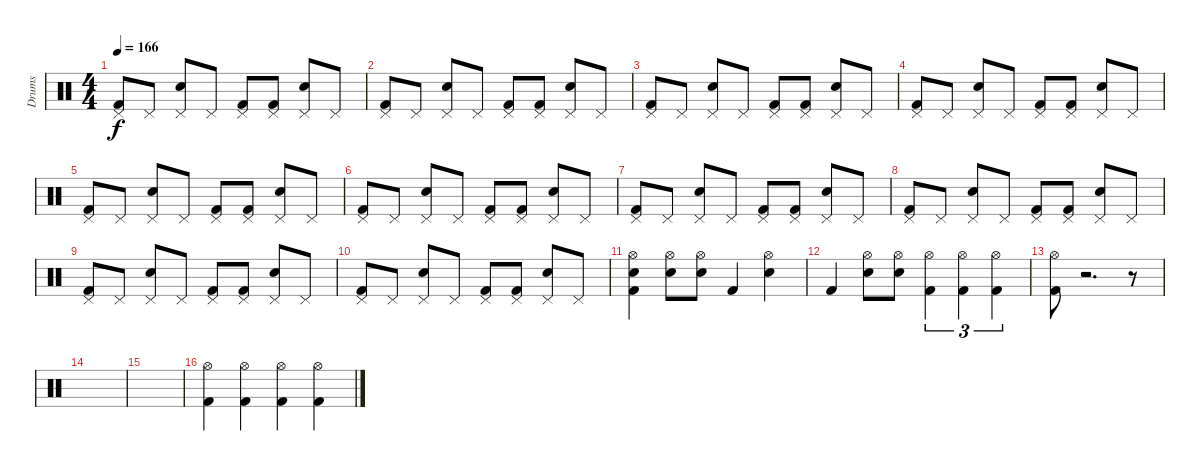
\track ("Drums" "Drums") {instrument percussion}
\staff {score}
\articulation defaults
\ts (4 4)
\tempo 166
\clef neutral
\ks c
("Pedal Hi-Hat (hit)" "Kick (hit) 2").8{dy f} "Pedal Hi-Hat (hit)".8 ("Electric Snare (hit)" "Pedal Hi-Hat (hit)").8 "Pedal Hi-Hat (hit)".8 ("Pedal Hi-Hat (hit)" "Kick (hit) 2").8 ("Pedal Hi-Hat (hit)" "Kick (hit) 2").8 ("Electric Snare (hit)" "Pedal Hi-Hat (hit)").8 "Pedal Hi-Hat (hit)".8 |
("Pedal Hi-Hat (hit)" "Kick (hit) 2").8 "Pedal Hi-Hat (hit)".8 ("Electric Snare (hit)" "Pedal Hi-Hat (hit)").8 "Pedal Hi-Hat (hit)".8 ("Pedal Hi-Hat (hit)" "Kick (hit) 2").8 ("Pedal Hi-Hat (hit)" "Kick (hit) 2").8 ("Electric Snare (hit)" "Pedal Hi-Hat (hit)").8 "Pedal Hi-Hat (hit)".8 |
("Pedal Hi-Hat (hit)" "Kick (hit) 2").8 "Pedal Hi-Hat (hit)".8 ("Electric Snare (hit)" "Pedal Hi-Hat (hit)").8 "Pedal Hi-Hat (hit)".8 ("Pedal Hi-Hat (hit)" "Kick (hit) 2").8 ("Pedal Hi-Hat (hit)" "Kick (hit) 2").8 ("Electric Snare (hit)" "Pedal Hi-Hat (hit)").8 "Pedal Hi-Hat (hit)".8 |
("Pedal Hi-Hat (hit)" "Kick (hit) 2").8 "Pedal Hi-Hat (hit)".8 ("Electric Snare (hit)" "Pedal Hi-Hat (hit)").8 "Pedal Hi-Hat (hit)".8 ("Pedal Hi-Hat (hit)" "Kick (hit) 2").8 ("Pedal Hi-Hat (hit)" "Kick (hit) 2").8 ("Electric Snare (hit)" "Pedal Hi-Hat (hit)").8 "Pedal Hi-Hat (hit)".8 |
("Pedal Hi-Hat (hit)" "Kick (hit) 2").8 "Pedal Hi-Hat (hit)".8 ("Electric Snare (hit)" "Pedal Hi-Hat (hit)").8 "Pedal Hi-Hat (hit)".8 ("Pedal Hi-Hat (hit)" "Kick (hit) 2").8 ("Pedal Hi-Hat (hit)" "Kick (hit) 2").8 ("Electric Snare (hit)" "Pedal Hi-Hat (hit)").8 "Pedal Hi-Hat (hit)".8 |
("Pedal Hi-Hat (hit)" "Kick (hit) 2").8 "Pedal Hi-Hat (hit)".8 ("Electric Snare (hit)" "Pedal Hi-Hat (hit)").8 "Pedal Hi-Hat (hit)".8 ("Pedal Hi-Hat (hit)" "Kick (hit) 2").8 ("Pedal Hi-Hat (hit)" "Kick (hit) 2").8 ("Electric Snare (hit)" "Pedal Hi-Hat (hit)").8 "Pedal Hi-Hat (hit)".8 |
("Pedal Hi-Hat (hit)" "Kick (hit) 2").8 "Pedal Hi-Hat (hit)".8 ("Electric Snare (hit)" "Pedal Hi-Hat (hit)").8 "Pedal Hi-Hat (hit)".8 ("Pedal Hi-Hat (hit)" "Kick (hit) 2").8 ("Pedal Hi-Hat (hit)" "Kick (hit) 2").8 ("Electric Snare (hit)" "Pedal Hi-Hat (hit)").8 "Pedal Hi-Hat (hit)".8 |
("Pedal Hi-Hat (hit)" "Kick (hit) 2").8 "Pedal Hi-Hat (hit)".8 ("Electric Snare (hit)" "Pedal Hi-Hat (hit)").8 "Pedal Hi-Hat (hit)".8 ("Pedal Hi-Hat (hit)" "Kick (hit) 2").8 ("Pedal Hi-Hat (hit)" "Kick (hit) 2").8 ("Electric Snare (hit)" "Pedal Hi-Hat (hit)").8 "Pedal Hi-Hat (hit)".8 |
("Pedal Hi-Hat (hit)" "Kick (hit) 2").8 "Pedal Hi-Hat (hit)".8 ("Electric Snare (hit)" "Pedal Hi-Hat (hit)").8 "Pedal Hi-Hat (hit)".8 ("Pedal Hi-Hat (hit)" "Kick (hit) 2").8 ("Pedal Hi-Hat (hit)" "Kick (hit) 2").8 ("Electric Snare (hit)" "Pedal Hi-Hat (hit)").8 "Pedal Hi-Hat (hit)".8 |
("Pedal Hi-Hat (hit)" "Kick (hit) 2").8 "Pedal Hi-Hat (hit)".8 ("Electric Snare (hit)" "Pedal Hi-Hat (hit)").8 "Pedal Hi-Hat (hit)".8 ("Pedal Hi-Hat (hit)" "Kick (hit) 2").8 ("Pedal Hi-Hat (hit)" "Kick (hit) 2").8 ("Electric Snare (hit)" "Pedal Hi-Hat (hit)").8 "Pedal Hi-Hat (hit)".8 |
("Electric Snare (hit)" "Hi-Hat (open)" "Kick (hit) 2").4 ("Electric Snare (hit)" "Hi-Hat (open)").8 ("Electric Snare (hit)" "Hi-Hat (open)").8 "Kick (hit) 2".4 ("Electric Snare (hit)" "Hi-Hat (open)").4 |
"Kick (hit) 2".4 ("Electric Snare (hit)" "Hi-Hat (open)").8 ("Electric Snare (hit)" "Hi-Hat (open)").8 ("Hi-Hat (open)" "Kick (hit) 2").4{tu (3 2)} ("Hi-Hat (open)" "Kick (hit) 2").4{tu (3 2)} ("Hi-Hat (open)" "Kick (hit) 2").4{tu (3 2)} |
("Hi-Hat (open)" "Kick (hit) 2").8 r.2{d} r.8 |
|
|
("Hi-Hat (open)" "Kick (hit) 2").4 ("Hi-Hat (open)" "Kick (hit) 2").4 ("Hi-Hat (open)" "Kick (hit) 2").4 ("Hi-Hat (open)" "Kick (hit) 2").4
